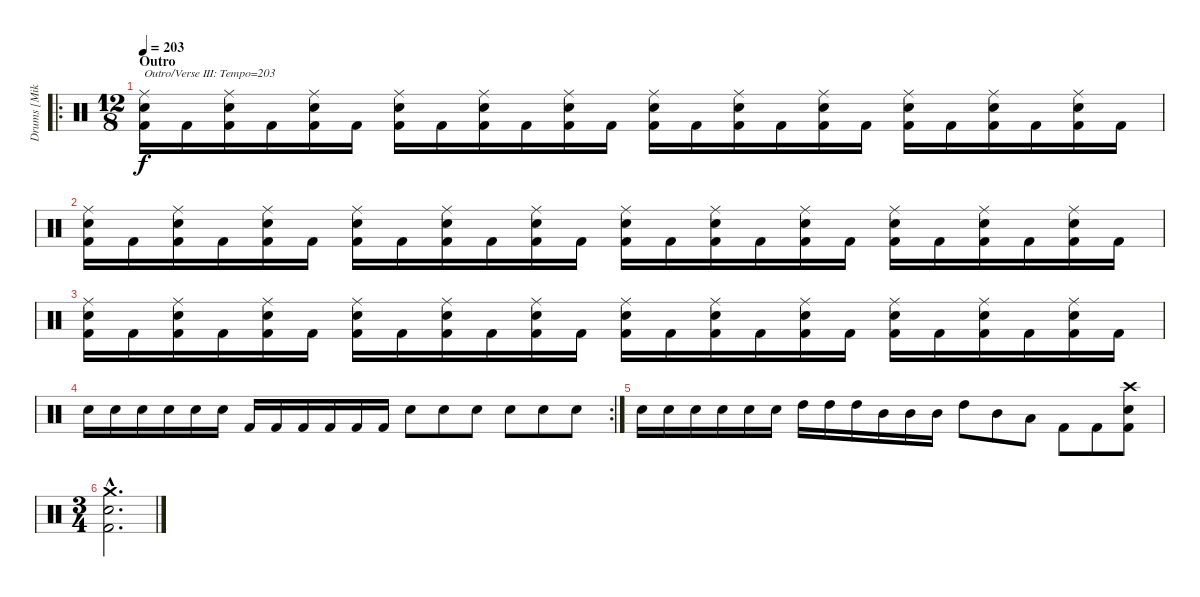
\track ("Drums [Mike Smith]" "Drums [Mik") {instrument percussion}
\staff {score}
\articulation defaults
\ro
\ts (12 8)
\section ("" "Outro")
\tempo 203
\clef neutral
\ks c
("Ride (middle)" "Electric Snare (hit)" "Kick (hit) 2").16{txt "Outro/Verse III: Tempo=203" dy f} "Kick (hit) 2".16 ("Ride (middle)" "Electric Snare (hit)" "Kick (hit) 2").16 "Kick (hit) 2".16 ("Ride (middle)" "Electric Snare (hit)" "Kick (hit) 2").16 "Kick (hit) 2".16 ("Ride (middle)" "Electric Snare (hit)" "Kick (hit) 2").16 "Kick (hit) 2".16 ("Ride (middle)" "Electric Snare (hit)" "Kick (hit) 2").16 "Kick (hit) 2".16 ("Ride (middle)" "Electric Snare (hit)" "Kick (hit) 2").16 "Kick (hit) 2".16 ("Ride (middle)" "Electric Snare (hit)" "Kick (hit) 2").16 "Kick (hit) 2".16 ("Ride (middle)" "Electric Snare (hit)" "Kick (hit) 2").16 "Kick (hit) 2".16 ("Ride (middle)" "Electric Snare (hit)" "Kick (hit) 2").16 "Kick (hit) 2".16 ("Ride (middle)" "Electric Snare (hit)" "Kick (hit) 2").16 "Kick (hit) 2".16 ("Ride (middle)" "Electric Snare (hit)" "Kick (hit) 2").16 "Kick (hit) 2".16 ("Ride (middle)" "Electric Snare (hit)" "Kick (hit) 2").16 "Kick (hit) 2".16 |
("Ride (middle)" "Electric Snare (hit)" "Kick (hit) 2").16 "Kick (hit) 2".16 ("Ride (middle)" "Electric Snare (hit)" "Kick (hit) 2").16 "Kick (hit) 2".16 ("Ride (middle)" "Electric Snare (hit)" "Kick (hit) 2").16 "Kick (hit) 2".16 ("Ride (middle)" "Electric Snare (hit)" "Kick (hit) 2").16 "Kick (hit) 2".16 ("Ride (middle)" "Electric Snare (hit)" "Kick (hit) 2").16 "Kick (hit) 2".16 ("Ride (middle)" "Electric Snare (hit)" "Kick (hit) 2").16 "Kick (hit) 2".16 ("Ride (middle)" "Electric Snare (hit)" "Kick (hit) 2").16 "Kick (hit) 2".16 ("Ride (middle)" "Electric Snare (hit)" "Kick (hit) 2").16 "Kick (hit) 2".16 ("Ride (middle)" "Electric Snare (hit)" "Kick (hit) 2").16 "Kick (hit) 2".16 ("Ride (middle)" "Electric Snare (hit)" "Kick (hit) 2").16 "Kick (hit) 2".16 ("Ride (middle)" "Electric Snare (hit)" "Kick (hit) 2").16 "Kick (hit) 2".16 ("Ride (middle)" "Electric Snare (hit)" "Kick (hit) 2").16 "Kick (hit) 2".16 |
("Ride (middle)" "Electric Snare (hit)" "Kick (hit) 2").16 "Kick (hit) 2".16 ("Ride (middle)" "Electric Snare (hit)" "Kick (hit) 2").16 "Kick (hit) 2".16 ("Ride (middle)" "Electric Snare (hit)" "Kick (hit) 2").16 "Kick (hit) 2".16 ("Ride (middle)" "Electric Snare (hit)" "Kick (hit) 2").16 "Kick (hit) 2".16 ("Ride (middle)" "Electric Snare (hit)" "Kick (hit) 2").16 "Kick (hit) 2".16 ("Ride (middle)" "Electric Snare (hit)" "Kick (hit) 2").16 "Kick (hit) 2".16 ("Ride (middle)" "Electric Snare (hit)" "Kick (hit) 2").16 "Kick (hit) 2".16 ("Ride (middle)" "Electric Snare (hit)" "Kick (hit) 2").16 "Kick (hit) 2".16 ("Ride (middle)" "Electric Snare (hit)" "Kick (hit) 2").16 "Kick (hit) 2".16 ("Ride (middle)" "Electric Snare (hit)" "Kick (hit) 2").16 "Kick (hit) 2".16 ("Ride (middle)" "Electric Snare (hit)" "Kick (hit) 2").16 "Kick (hit) 2".16 ("Ride (middle)" "Electric Snare (hit)" "Kick (hit) 2").16 "Kick (hit) 2".16 |
\rc 2 "Electric Snare (hit)".16 "Electric Snare (hit)".16 "Electric Snare (hit)".16 "Electric Snare (hit)".16 "Electric Snare (hit)".16 "Electric Snare (hit)".16 "Kick (hit) 2".16 "Kick (hit) 2".16 "Kick (hit) 2".16 "Kick (hit) 2".16 "Kick (hit) 2".16 "Kick (hit) 2".16 "Electric Snare (hit)".8 "Electric Snare (hit)".8 "Electric Snare (hit)".8 "Electric Snare (hit)".8 "Electric Snare (hit)".8 "Electric Snare (hit)".8
|
"Electric Snare (hit)".16 "Electric Snare (hit)".16 "Electric Snare (hit)".16 "Electric Snare (hit)".16 "Electric Snare (hit)".16 "Electric Snare (hit)".16 "High Tom (hit)".16 "High Tom (hit)".16 "High Tom (hit)".16 "Mid Tom (hit)".16 "Mid Tom (hit)".16 "Mid Tom (hit)".16 "High Tom (hit)".8 "Mid Tom (hit)".8 "Low Tom (hit)".8 "Kick (hit) 2".8 "Kick (hit) 2".8 ("Crash high (hit)" "Electric Snare (hit)" "Kick (hit) 2").8 |
\ts (3 4)
("Crash medium (hit)"{hac} "Electric Snare (hit)"{hac} "Kick (hit) 2"{hac}).2{d}
